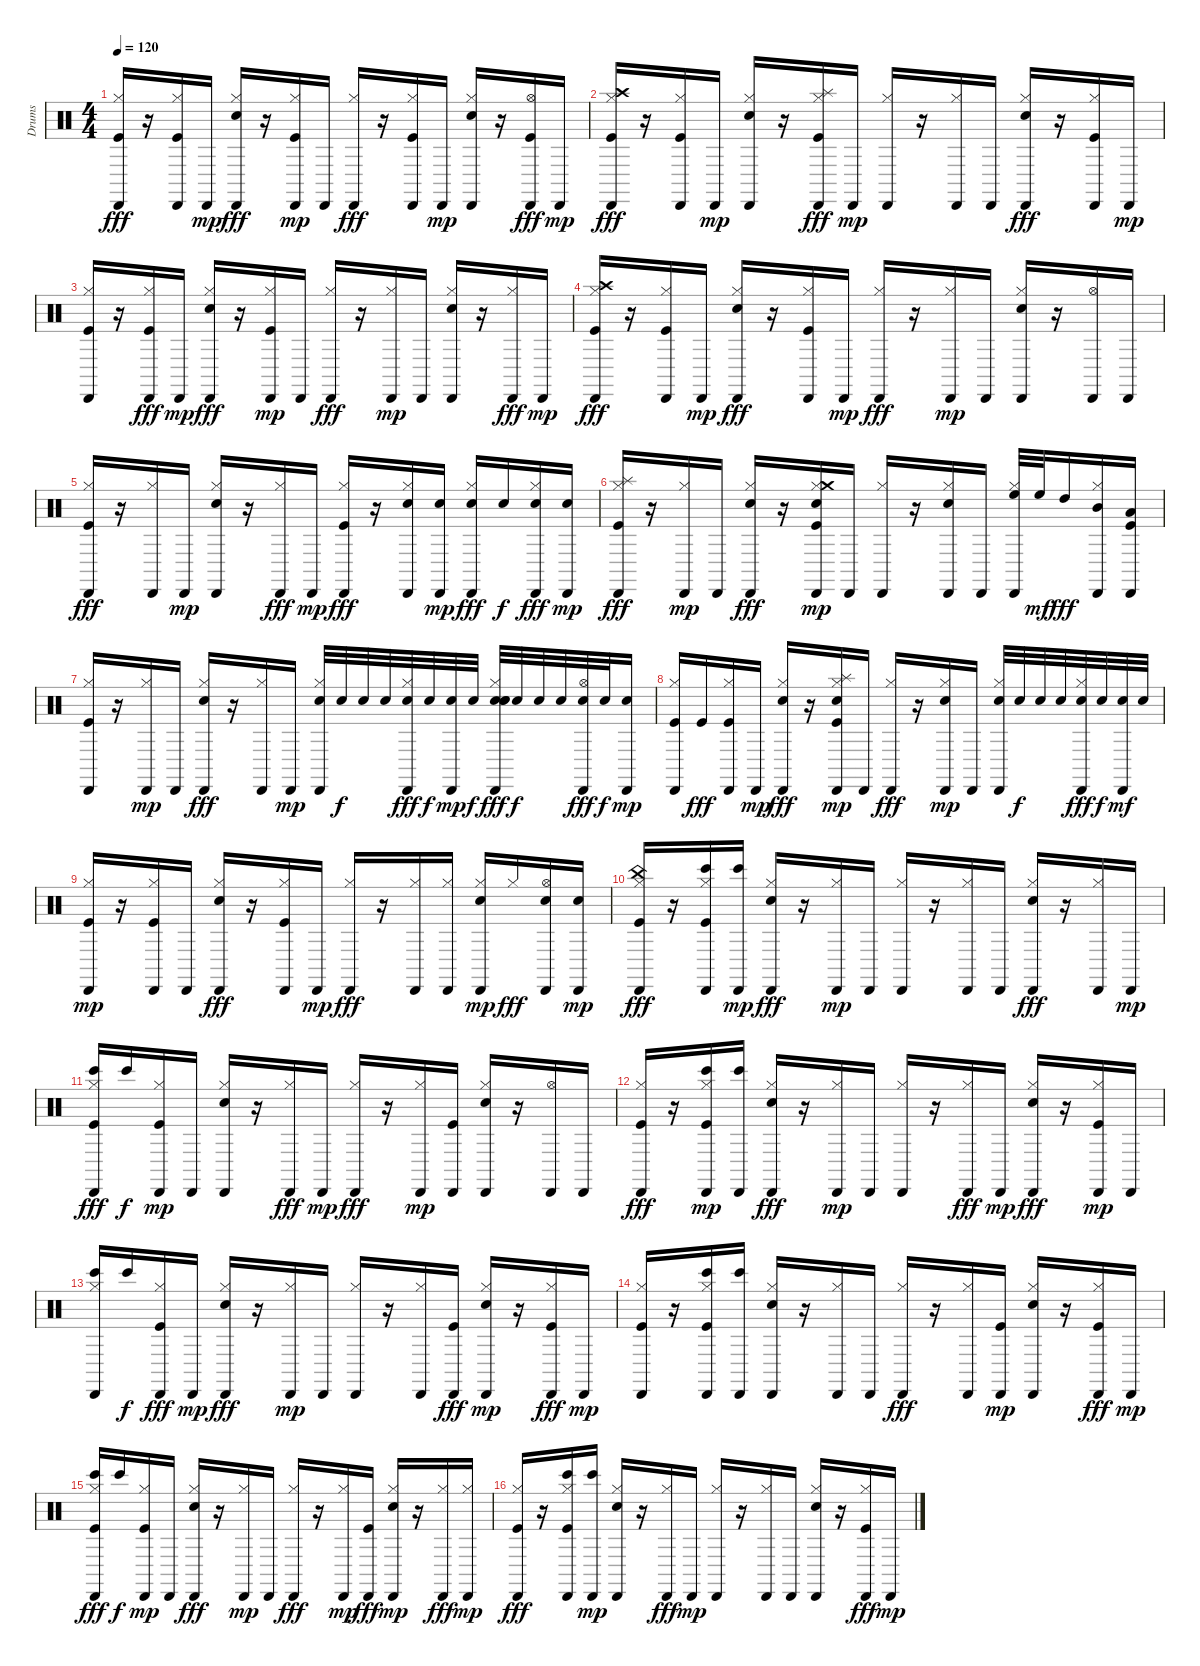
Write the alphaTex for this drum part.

\track ("Drums" "Drums") {instrument percussion}
\staff {score}
\articulation defaults
\ts (4 4)
\tempo 120
\clef neutral
\ks c
("Hi-Hat (closed)" "Cabasa (hit)" "Kick (hit)").16{dy fff} r.16 ("Hi-Hat (closed)" "Cabasa (hit)" "Kick (hit)").16 "Cabasa (hit)".16{dy mp} ("Snare (hit) 2" "Cabasa (hit)" "Hi-Hat (closed)").16{dy fff} r.16 ("Hi-Hat (closed)" "Kick (hit)" "Cabasa (hit)").16{dy mp} "Cabasa (hit)".16 ("Cabasa (hit)" "Hi-Hat (closed)").16{dy fff} r.16 ("Hi-Hat (closed)" "Cabasa (hit)" "Kick (hit)").16 "Cabasa (hit)".16{dy mp} ("Hi-Hat (closed)" "Snare (hit) 2" "Cabasa (hit)").16 r.16 ("Cabasa (hit)" "Hi-Hat (open)" "Kick (hit)").16{dy fff} "Cabasa (hit)".16{dy mp} |
("Hi-Hat (closed)" "Crash high (hit)" "Cabasa (hit)" "Kick (hit)").16{dy fff} r.16 ("Kick (hit)" "Cabasa (hit)" "Hi-Hat (closed)").16 "Cabasa (hit)".16{dy mp} ("Snare (hit) 2" "Hi-Hat (closed)" "Cabasa (hit)").16 r.16 ("Cabasa (hit)" "Hi-Hat (closed)" "Splash (hit)" "Kick (hit)").16{dy fff} "Cabasa (hit)".16{dy mp} ("Hi-Hat (closed)" "Cabasa (hit)").16 r.16 ("Hi-Hat (closed)" "Cabasa (hit)").16 "Cabasa (hit)".16 ("Snare (hit) 2" "Cabasa (hit)" "Hi-Hat (closed)").16{dy fff} r.16 ("Cabasa (hit)" "Kick (hit)" "Hi-Hat (closed)").16 "Cabasa (hit)".16{dy mp} |
("Kick (hit)" "Hi-Hat (closed)" "Cabasa (hit)").16 r.16 ("Cabasa (hit)" "Hi-Hat (closed)" "Kick (hit)").16{dy fff} "Cabasa (hit)".16{dy mp} ("Cabasa (hit)" "Hi-Hat (closed)" "Snare (hit) 2").16{dy fff} r.16 ("Hi-Hat (closed)" "Kick (hit)" "Cabasa (hit)").16{dy mp} "Cabasa (hit)".16 ("Cabasa (hit)" "Hi-Hat (closed)").16{dy fff} r.16 ("Hi-Hat (closed)" "Cabasa (hit)").16{dy mp} "Cabasa (hit)".16 ("Hi-Hat (closed)" "Snare (hit) 2" "Cabasa (hit)").16 r.16 ("Cabasa (hit)" "Hi-Hat (closed)").16{dy fff} "Cabasa (hit)".16{dy mp} |
("Crash high (hit)" "Kick (hit)" "Cabasa (hit)" "Hi-Hat (closed)").16{dy fff} r.16 ("Cabasa (hit)" "Kick (hit)" "Hi-Hat (closed)").16 "Cabasa (hit)".16{dy mp} ("Cabasa (hit)" "Snare (hit) 2" "Hi-Hat (closed)").16{dy fff} r.16 ("Cabasa (hit)" "Kick (hit)" "Hi-Hat (closed)").16 "Cabasa (hit)".16{dy mp} ("Cabasa (hit)" "Hi-Hat (closed)").16{dy fff} r.16 ("Hi-Hat (closed)" "Cabasa (hit)").16{dy mp} "Cabasa (hit)".16 ("Hi-Hat (closed)" "Snare (hit) 2" "Cabasa (hit)").16 r.16 ("Hi-Hat (open)" "Cabasa (hit)").16 "Cabasa (hit)".16 |
("Kick (hit)" "Cabasa (hit)" "Hi-Hat (closed)").16{dy fff} r.16 ("Cabasa (hit)" "Hi-Hat (closed)").16 "Cabasa (hit)".16{dy mp} ("Hi-Hat (closed)" "Snare (hit) 2" "Cabasa (hit)").16 r.16 ("Cabasa (hit)" "Hi-Hat (closed)").16{dy fff} "Cabasa (hit)".16{dy mp} ("Kick (hit)" "Cabasa (hit)" "Hi-Hat (closed)").16{dy fff} r.16 ("Snare (hit) 2" "Cabasa (hit)" "Hi-Hat (closed)").16 ("Snare (hit) 2" "Cabasa (hit)").16{dy mp} ("Snare (hit) 2" "Cabasa (hit)" "Hi-Hat (closed)").16{dy fff} "Snare (hit) 2".16{dy f} ("Cabasa (hit)" "Snare (hit) 2" "Hi-Hat (closed)").16{dy fff} ("Cabasa (hit)" "Snare (hit) 2").16{dy mp} |
("Kick (hit)" "Hi-Hat (closed)" "Cabasa (hit)" "Splash (hit)").16{dy fff} r.16 ("Hi-Hat (closed)" "Cabasa (hit)").16{dy mp} "Cabasa (hit)".16 ("Cabasa (hit)" "Snare (hit) 2" "Hi-Hat (closed)").16{dy fff} r.16 ("Hi-Hat (closed)" "Crash medium (hit)" "Snare (hit) 2" "Kick (hit)" "Cabasa (hit)").16{dy mp} "Cabasa (hit)".16 ("Hi-Hat (closed)" "Cabasa (hit)").16 r.16 ("Snare (hit) 2" "Hi-Hat (closed)" "Cabasa (hit)").16 "Cabasa (hit)".16 ("Hi-Hat (closed)" "High Floor Tom (hit)" "Cabasa (hit)").32 "High Floor Tom (hit)".32{dy mf} "High Tom (hit)".16{dy fff} ("Hi-Hat (closed)" "Cabasa (hit)" "Mid Tom (hit)").16 ("Kick (hit)" "Cabasa (hit)" "Low Tom (hit)").16 |
("Cabasa (hit)" "Hi-Hat (closed)" "Kick (hit)").16 r.16 ("Hi-Hat (closed)" "Cabasa (hit)").16{dy mp} "Cabasa (hit)".16 ("Cabasa (hit)" "Snare (hit) 2" "Hi-Hat (closed)").16{dy fff} r.16 ("Cabasa (hit)" "Hi-Hat (closed)").16 "Cabasa (hit)".16{dy mp} ("Electric Snare (hit)" "Hi-Hat (closed)" "Cabasa (hit)").32 "Electric Snare (hit)".32{dy f} "Electric Snare (hit)".32 "Electric Snare (hit)".32 ("Cabasa (hit)" "Hi-Hat (closed)" "Electric Snare (hit)").32{dy fff} "Electric Snare (hit)".32{dy f} ("Cabasa (hit)" "Electric Snare (hit)").32{dy mp} "Electric Snare (hit)".32{dy f} ("Electric Snare (hit)" "Electric Snare (hit)" "Electric Snare (hit)" "Cabasa (hit)" "Hi-Hat (closed)").32{dy fff} "Electric Snare (hit)".32{dy f} "Electric Snare (hit)".32 "Electric Snare (hit)".32 ("Cabasa (hit)" "Hi-Hat (open)" "Electric Snare (hit)").32{dy fff} "Electric Snare (hit)".32{dy f} ("Cabasa (hit)" "Electric Snare (hit)").16{dy mp} |
("Hi-Hat (closed)" "Kick (hit)" "Cabasa (hit)").16 "Kick (hit)".16{dy fff} ("Cabasa (hit)" "Hi-Hat (closed)" "Kick (hit)").16 "Cabasa (hit)".16{dy mp} ("Cabasa (hit)" "Snare (hit) 2" "Hi-Hat (closed)").16{dy fff} r.16 ("Kick (hit)" "Hi-Hat (closed)" "Splash (hit)" "Cabasa (hit)" "Snare (hit) 2").16{dy mp} "Cabasa (hit)".16 ("Cabasa (hit)" "Hi-Hat (closed)").16{dy fff} r.16 ("Hi-Hat (closed)" "Cabasa (hit)" "Snare (hit) 2").16{dy mp} "Cabasa (hit)".16 ("Hi-Hat (closed)" "Electric Snare (hit)" "Cabasa (hit)").32 "Electric Snare (hit)".32{dy f} "Electric Snare (hit)".32 "Electric Snare (hit)".32 ("Cabasa (hit)" "Electric Snare (hit)" "Hi-Hat (closed)").32{dy fff} "Electric Snare (hit)".32{dy f} ("Cabasa (hit)" "Electric Snare (hit)").32{dy mf} "Electric Snare (hit)".32 |
("Kick (hit)" "Hi-Hat (closed)" "Cabasa (hit)").16{dy mp} r.16 ("Hi-Hat (closed)" "Kick (hit)" "Cabasa (hit)").16 "Cabasa (hit)".16 ("Cabasa (hit)" "Hi-Hat (closed)" "Snare (hit) 2").16{dy fff} r.16 ("Cabasa (hit)" "Kick (hit)" "Hi-Hat (closed)").16 "Cabasa (hit)".16{dy mp} ("Cabasa (hit)" "Hi-Hat (closed)").16{dy fff} r.16 ("Cabasa (hit)" "Hi-Hat (closed)").16 ("Cabasa (hit)" "Hi-Hat (closed)").16 ("Snare (hit) 2" "Hi-Hat (closed)" "Cabasa (hit)").16{dy mp} "Hi-Hat (closed)".16{dy fff} ("Snare (hit) 2" "Cabasa (hit)" "Hi-Hat (open)").16 ("Snare (hit) 2" "Cabasa (hit)").16{dy mp} |
("Cabasa (hit)" "China (hit)" "Hi-Hat (closed)" "Kick (hit)").16{dy fff} r.16 ("Cabasa (hit)" "Kick (hit)" "Hi-Hat (closed)" "Bongo High (hit)").16 ("Bongo High (hit)" "Cabasa (hit)").16{dy mp} ("Cabasa (hit)" "Hi-Hat (closed)" "Snare (hit) 2").16{dy fff} r.16 ("Hi-Hat (closed)" "Cabasa (hit)").16{dy mp} "Cabasa (hit)".16 ("Hi-Hat (closed)" "Cabasa (hit)").16 r.16 ("Hi-Hat (closed)" "Cabasa (hit)").16 "Cabasa (hit)".16 ("Snare (hit) 2" "Cabasa (hit)" "Hi-Hat (closed)").16{dy fff} r.16 ("Cabasa (hit)" "Hi-Hat (closed)").16 "Cabasa (hit)".16{dy mp} |
("Cabasa (hit)" "Hi-Hat (closed)" "Bongo High (hit)" "Kick (hit)").16{dy fff} "Bongo High (hit)".16{dy f} ("Hi-Hat (closed)" "Kick (hit)" "Cabasa (hit)").16{dy mp} "Cabasa (hit)".16 ("Hi-Hat (closed)" "Cabasa (hit)" "Snare (hit) 2").16 r.16 ("Cabasa (hit)" "Hi-Hat (closed)").16{dy fff} "Cabasa (hit)".16{dy mp} ("Cabasa (hit)" "Hi-Hat (closed)").16{dy fff} r.16 ("Hi-Hat (closed)" "Cabasa (hit)").16{dy mp} ("Kick (hit)" "Cabasa (hit)").16 ("Hi-Hat (closed)" "Snare (hit) 2" "Cabasa (hit)").16 r.16 ("Hi-Hat (open)" "Cabasa (hit)").16 "Cabasa (hit)".16 |
("Hi-Hat (closed)" "Cabasa (hit)" "Kick (hit)").16{dy fff} r.16 ("Kick (hit)" "Hi-Hat (closed)" "Cabasa (hit)" "Bongo High (hit)").16{dy mp} ("Bongo High (hit)" "Cabasa (hit)").16 ("Snare (hit) 2" "Cabasa (hit)" "Hi-Hat (closed)").16{dy fff} r.16 ("Hi-Hat (closed)" "Cabasa (hit)").16{dy mp} "Cabasa (hit)".16 ("Hi-Hat (closed)" "Cabasa (hit)").16 r.16 ("Cabasa (hit)" "Hi-Hat (closed)").16{dy fff} "Cabasa (hit)".16{dy mp} ("Cabasa (hit)" "Snare (hit) 2" "Hi-Hat (closed)").16{dy fff} r.16 ("Kick (hit)" "Hi-Hat (closed)" "Cabasa (hit)").16{dy mp} "Cabasa (hit)".16 |
("Hi-Hat (closed)" "Cabasa (hit)" "Bongo High (hit)").16 "Bongo High (hit)".16{dy f} ("Cabasa (hit)" "Kick (hit)" "Hi-Hat (closed)").16{dy fff} "Cabasa (hit)".16{dy mp} ("Snare (hit) 2" "Cabasa (hit)" "Hi-Hat (closed)").16{dy fff} r.16 ("Hi-Hat (closed)" "Cabasa (hit)").16{dy mp} "Cabasa (hit)".16 ("Hi-Hat (closed)" "Cabasa (hit)").16 r.16 ("Hi-Hat (closed)" "Cabasa (hit)").16 ("Cabasa (hit)" "Kick (hit)").16{dy fff} ("Hi-Hat (closed)" "Cabasa (hit)" "Snare (hit) 2").16{dy mp} r.16 ("Kick (hit)" "Cabasa (hit)" "Hi-Hat (closed)").16{dy fff} "Cabasa (hit)".16{dy mp} |
("Hi-Hat (closed)" "Kick (hit)" "Cabasa (hit)").16 r.16 ("Kick (hit)" "Hi-Hat (closed)" "Cabasa (hit)" "Bongo High (hit)").16 ("Bongo High (hit)" "Cabasa (hit)").16 ("Snare (hit) 2" "Hi-Hat (closed)" "Cabasa (hit)").16 r.16 ("Hi-Hat (closed)" "Cabasa (hit)").16 "Cabasa (hit)".16 ("Cabasa (hit)" "Hi-Hat (closed)").16{dy fff} r.16 ("Cabasa (hit)" "Hi-Hat (closed)").16 ("Kick (hit)" "Cabasa (hit)").16{dy mp} ("Hi-Hat (closed)" "Cabasa (hit)" "Snare (hit) 2").16 r.16 ("Kick (hit)" "Cabasa (hit)" "Hi-Hat (closed)").16{dy fff} "Cabasa (hit)".16{dy mp} |
("Kick (hit)" "Bongo High (hit)" "Cabasa (hit)" "Hi-Hat (closed)").16{dy fff} "Bongo High (hit)".16{dy f} ("Kick (hit)" "Hi-Hat (closed)" "Cabasa (hit)").16{dy mp} "Cabasa (hit)".16 ("Snare (hit) 2" "Cabasa (hit)" "Hi-Hat (closed)").16{dy fff} r.16 ("Hi-Hat (closed)" "Cabasa (hit)").16{dy mp} "Cabasa (hit)".16 ("Cabasa (hit)" "Hi-Hat (closed)").16{dy fff} r.16 ("Hi-Hat (closed)" "Cabasa (hit)").16{dy mp} ("Cabasa (hit)" "Kick (hit)").16{dy fff} ("Hi-Hat (closed)" "Cabasa (hit)" "Snare (hit) 2").16{dy mp} r.16 ("Cabasa (hit)" "Hi-Hat (closed)").16{dy fff} ("Hi-Hat (closed)" "Cabasa (hit)").16{dy mp} |
("Cabasa (hit)" "Kick (hit)" "Hi-Hat (closed)").16{dy fff} r.16 ("Cabasa (hit)" "Hi-Hat (closed)" "Kick (hit)" "Bongo High (hit)").16 ("Cabasa (hit)" "Bongo High (hit)").16{dy mp} ("Hi-Hat (closed)" "Cabasa (hit)" "Snare (hit) 2").16 r.16 ("Cabasa (hit)" "Hi-Hat (closed)").16{dy fff} "Cabasa (hit)".16{dy mp} ("Hi-Hat (closed)" "Cabasa (hit)").16 r.16 ("Hi-Hat (closed)" "Cabasa (hit)").16 "Cabasa (hit)".16 ("Hi-Hat (closed)" "Snare (hit) 2" "Cabasa (hit)").16 r.16 ("Kick (hit)" "Cabasa (hit)" "Hi-Hat (closed)").16{dy fff} "Cabasa (hit)".16{dy mp}
